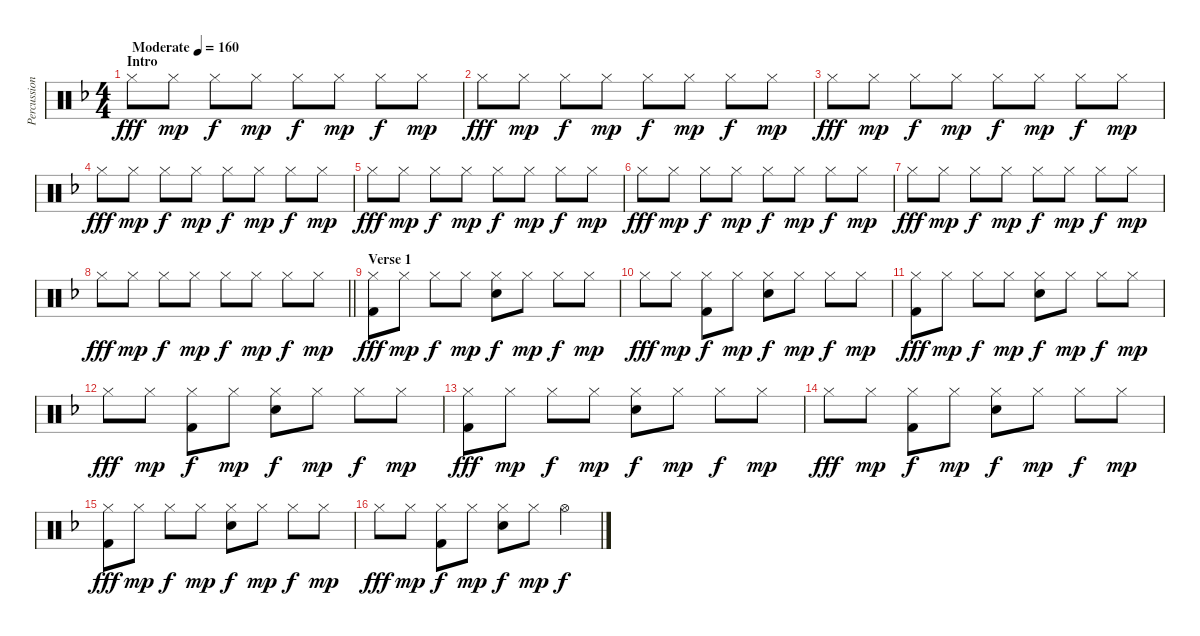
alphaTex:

\track ("Percussion" "Percussion") {instrument percussion}
\staff {score}
\articulation defaults
\ts (4 4)
\section ("" "Intro")
\tempo (160 "Moderate")
\clef neutral
\ks f "Hi-Hat (closed)".8{dy fff} "Hi-Hat (closed)".8{dy mp} "Hi-Hat (closed)".8{dy f} "Hi-Hat (closed)".8{dy mp} "Hi-Hat (closed)".8{dy f} "Hi-Hat (closed)".8{dy mp} "Hi-Hat (closed)".8{dy f} "Hi-Hat (closed)".8{dy mp}
|
"Hi-Hat (closed)".8{dy fff} "Hi-Hat (closed)".8{dy mp} "Hi-Hat (closed)".8{dy f} "Hi-Hat (closed)".8{dy mp} "Hi-Hat (closed)".8{dy f} "Hi-Hat (closed)".8{dy mp} "Hi-Hat (closed)".8{dy f} "Hi-Hat (closed)".8{dy mp} |
"Hi-Hat (closed)".8{dy fff} "Hi-Hat (closed)".8{dy mp} "Hi-Hat (closed)".8{dy f} "Hi-Hat (closed)".8{dy mp} "Hi-Hat (closed)".8{dy f} "Hi-Hat (closed)".8{dy mp} "Hi-Hat (closed)".8{dy f} "Hi-Hat (closed)".8{dy mp} |
"Hi-Hat (closed)".8{dy fff} "Hi-Hat (closed)".8{dy mp} "Hi-Hat (closed)".8{dy f} "Hi-Hat (closed)".8{dy mp} "Hi-Hat (closed)".8{dy f} "Hi-Hat (closed)".8{dy mp} "Hi-Hat (closed)".8{dy f} "Hi-Hat (closed)".8{dy mp} |
"Hi-Hat (closed)".8{dy fff} "Hi-Hat (closed)".8{dy mp} "Hi-Hat (closed)".8{dy f} "Hi-Hat (closed)".8{dy mp} "Hi-Hat (closed)".8{dy f} "Hi-Hat (closed)".8{dy mp} "Hi-Hat (closed)".8{dy f} "Hi-Hat (closed)".8{dy mp} |
"Hi-Hat (closed)".8{dy fff} "Hi-Hat (closed)".8{dy mp} "Hi-Hat (closed)".8{dy f} "Hi-Hat (closed)".8{dy mp} "Hi-Hat (closed)".8{dy f} "Hi-Hat (closed)".8{dy mp} "Hi-Hat (closed)".8{dy f} "Hi-Hat (closed)".8{dy mp} |
"Hi-Hat (closed)".8{dy fff} "Hi-Hat (closed)".8{dy mp} "Hi-Hat (closed)".8{dy f} "Hi-Hat (closed)".8{dy mp} "Hi-Hat (closed)".8{dy f} "Hi-Hat (closed)".8{dy mp} "Hi-Hat (closed)".8{dy f} "Hi-Hat (closed)".8{dy mp} |
\barLineRight lightlight "Hi-Hat (closed)".8{dy fff} "Hi-Hat (closed)".8{dy mp} "Hi-Hat (closed)".8{dy f} "Hi-Hat (closed)".8{dy mp} "Hi-Hat (closed)".8{dy f} "Hi-Hat (closed)".8{dy mp} "Hi-Hat (closed)".8{dy f} "Hi-Hat (closed)".8{dy mp}
|
\section ("" "Verse 1")
("Hi-Hat (closed)" "Kick (hit) 2").8{dy fff} "Hi-Hat (closed)".8{dy mp} "Hi-Hat (closed)".8{dy f} "Hi-Hat (closed)".8{dy mp} ("Hi-Hat (closed)" "Electric Snare (hit)").8{dy f} "Hi-Hat (closed)".8{dy mp} "Hi-Hat (closed)".8{dy f} "Hi-Hat (closed)".8{dy mp} |
"Hi-Hat (closed)".8{dy fff} "Hi-Hat (closed)".8{dy mp} ("Hi-Hat (closed)" "Kick (hit) 2").8{dy f} "Hi-Hat (closed)".8{dy mp} ("Hi-Hat (closed)" "Electric Snare (hit)").8{dy f} "Hi-Hat (closed)".8{dy mp} "Hi-Hat (closed)".8{dy f} "Hi-Hat (closed)".8{dy mp} |
("Hi-Hat (closed)" "Kick (hit) 2").8{dy fff} "Hi-Hat (closed)".8{dy mp} "Hi-Hat (closed)".8{dy f} "Hi-Hat (closed)".8{dy mp} ("Hi-Hat (closed)" "Electric Snare (hit)").8{dy f} "Hi-Hat (closed)".8{dy mp} "Hi-Hat (closed)".8{dy f} "Hi-Hat (closed)".8{dy mp} |
"Hi-Hat (closed)".8{dy fff} "Hi-Hat (closed)".8{dy mp} ("Hi-Hat (closed)" "Kick (hit) 2").8{dy f} "Hi-Hat (closed)".8{dy mp} ("Hi-Hat (closed)" "Electric Snare (hit)").8{dy f} "Hi-Hat (closed)".8{dy mp} "Hi-Hat (closed)".8{dy f} "Hi-Hat (closed)".8{dy mp} |
("Hi-Hat (closed)" "Kick (hit) 2").8{dy fff} "Hi-Hat (closed)".8{dy mp} "Hi-Hat (closed)".8{dy f} "Hi-Hat (closed)".8{dy mp} ("Hi-Hat (closed)" "Electric Snare (hit)").8{dy f} "Hi-Hat (closed)".8{dy mp} "Hi-Hat (closed)".8{dy f} "Hi-Hat (closed)".8{dy mp} |
"Hi-Hat (closed)".8{dy fff} "Hi-Hat (closed)".8{dy mp} ("Hi-Hat (closed)" "Kick (hit) 2").8{dy f} "Hi-Hat (closed)".8{dy mp} ("Hi-Hat (closed)" "Electric Snare (hit)").8{dy f} "Hi-Hat (closed)".8{dy mp} "Hi-Hat (closed)".8{dy f} "Hi-Hat (closed)".8{dy mp} |
("Hi-Hat (closed)" "Kick (hit) 2").8{dy fff} "Hi-Hat (closed)".8{dy mp} "Hi-Hat (closed)".8{dy f} "Hi-Hat (closed)".8{dy mp} ("Hi-Hat (closed)" "Electric Snare (hit)").8{dy f} "Hi-Hat (closed)".8{dy mp} "Hi-Hat (closed)".8{dy f} "Hi-Hat (closed)".8{dy mp} |
"Hi-Hat (closed)".8{dy fff} "Hi-Hat (closed)".8{dy mp} ("Hi-Hat (closed)" "Kick (hit) 2").8{dy f} "Hi-Hat (closed)".8{dy mp} ("Hi-Hat (closed)" "Electric Snare (hit)").8{dy f} "Hi-Hat (closed)".8{dy mp} "Hi-Hat (open)".4{dy f}
